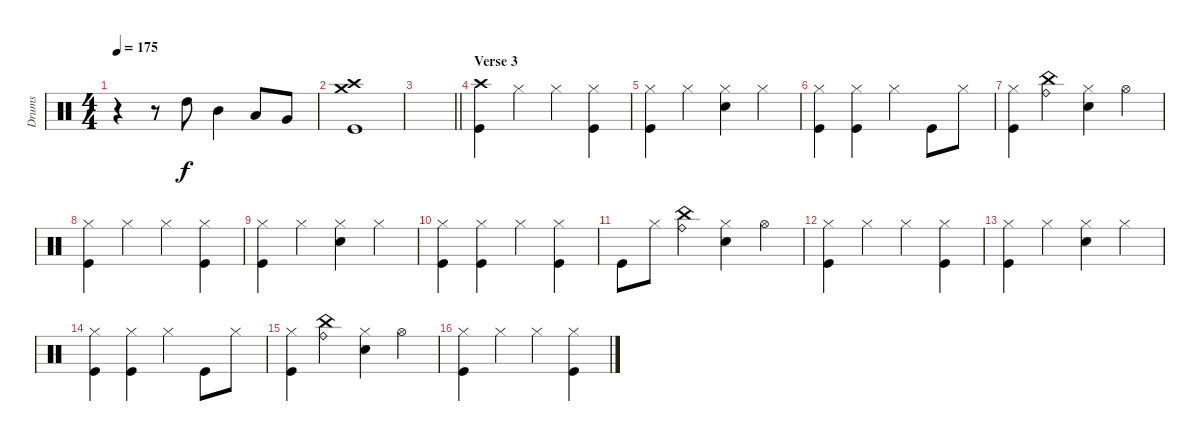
\track ("Drums" "Drums") {instrument percussion}
\staff {score}
\articulation defaults
\ts (4 4)
\tempo 175
\clef neutral
\ks c
r.4{dy f} r.8 "High Tom (hit)".8 "Mid Tom (hit)".4 "Low Tom (hit)".8 "Very Low Tom (hit)".8 |
("Crash medium (hit)" "Crash high (hit)" "Kick (hit)").1 |
\barLineRight lightlight
|
\section ("" "Verse 3")
("Crash high (hit)" "Kick (hit)").4 "Hi-Hat (closed)".4 "Hi-Hat (closed)".4 ("Hi-Hat (closed)" "Kick (hit)").4 |
("Hi-Hat (closed)" "Kick (hit)").4 "Hi-Hat (closed)".4 ("Hi-Hat (closed)" "Electric Snare (hit)").4 "Hi-Hat (closed)".4 |
("Hi-Hat (closed)" "Kick (hit)").4 ("Hi-Hat (closed)" "Kick (hit)").4 "Hi-Hat (closed)".4 "Kick (hit)".8 "Hi-Hat (closed)".8 |
("Hi-Hat (closed)" "Kick (hit)").4 ("China (hit)" "Ride (bell)").4 ("Hi-Hat (closed)" "Electric Snare (hit)").4 "Hi-Hat (open)".4 |
("Hi-Hat (closed)" "Kick (hit)").4 "Hi-Hat (closed)".4 "Hi-Hat (closed)".4 ("Hi-Hat (closed)" "Kick (hit)").4 |
("Hi-Hat (closed)" "Kick (hit)").4 "Hi-Hat (closed)".4 ("Hi-Hat (closed)" "Electric Snare (hit)").4 "Hi-Hat (closed)".4 |
("Hi-Hat (closed)" "Kick (hit)").4 ("Hi-Hat (closed)" "Kick (hit)").4 "Hi-Hat (closed)".4 ("Hi-Hat (closed)" "Kick (hit)").4 |
"Kick (hit)".8 "Hi-Hat (closed)".8 ("China (hit)" "Ride (bell)").4 ("Hi-Hat (closed)" "Electric Snare (hit)").4 "Hi-Hat (open)".4 |
("Hi-Hat (closed)" "Kick (hit)").4 "Hi-Hat (closed)".4 "Hi-Hat (closed)".4 ("Hi-Hat (closed)" "Kick (hit)").4 |
("Hi-Hat (closed)" "Kick (hit)").4 "Hi-Hat (closed)".4 ("Hi-Hat (closed)" "Electric Snare (hit)").4 "Hi-Hat (closed)".4 |
("Hi-Hat (closed)" "Kick (hit)").4 ("Hi-Hat (closed)" "Kick (hit)").4 "Hi-Hat (closed)".4 "Kick (hit)".8 "Hi-Hat (closed)".8 |
("Hi-Hat (closed)" "Kick (hit)").4 ("China (hit)" "Ride (bell)").4 ("Hi-Hat (closed)" "Electric Snare (hit)").4 "Hi-Hat (open)".4 |
("Hi-Hat (closed)" "Kick (hit)").4 "Hi-Hat (closed)".4 "Hi-Hat (closed)".4 ("Hi-Hat (closed)" "Kick (hit)").4
